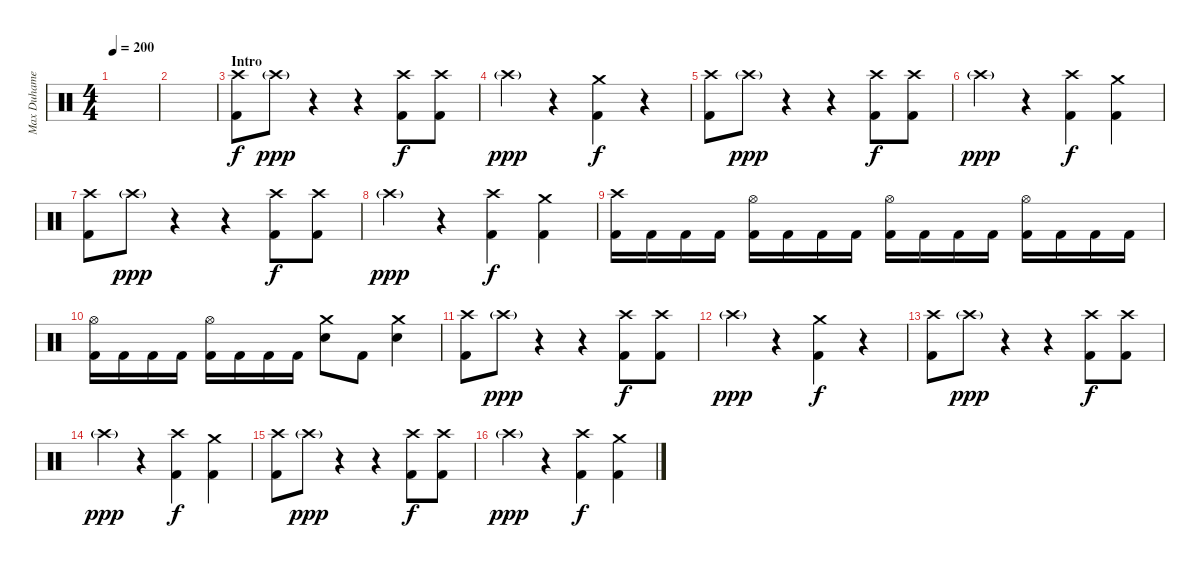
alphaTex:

\track ("Max Duhamel" "Max Duhame") {instrument percussion}
\staff {score}
\articulation defaults
\ts (4 4)
\tempo 200
\clef neutral
\ks c
|
|
\section ("" "Intro")
("Crash high (hit)" "Kick (hit) 2").8 "Crash high (hit)"{g}.8{dy ppp} r.4 r.4 ("Crash high (hit)" "Kick (hit) 2").8{dy f} ("Crash high (hit)" "Kick (hit) 2").8 |
"Crash high (hit)"{g}.4{dy ppp} r.4 ("Crash medium (hit)" "Kick (hit) 2").4{dy f} r.4 |
("Crash high (hit)" "Kick (hit) 2").8 "Crash high (hit)"{g}.8{dy ppp} r.4 r.4 ("Crash high (hit)" "Kick (hit) 2").8{dy f} ("Crash high (hit)" "Kick (hit) 2").8 |
"Crash high (hit)"{g}.4{dy ppp} r.4 ("Crash high (hit)" "Kick (hit) 2").4{dy f} ("Crash medium (hit)" "Kick (hit) 2").4 |
("Crash high (hit)" "Kick (hit) 2").8 "Crash high (hit)"{g}.8{dy ppp} r.4 r.4 ("Crash high (hit)" "Kick (hit) 2").8{dy f} ("Crash high (hit)" "Kick (hit) 2").8 |
"Crash high (hit)"{g}.4{dy ppp} r.4 ("Crash high (hit)" "Kick (hit) 2").4{dy f} ("Crash medium (hit)" "Kick (hit) 2").4 |
("Crash high (hit)" "Kick (hit) 2").16 "Kick (hit) 2".16 "Kick (hit) 2".16 "Kick (hit) 2".16 ("Hi-Hat (open)" "Kick (hit) 2").16 "Kick (hit) 2".16 "Kick (hit) 2".16 "Kick (hit) 2".16 ("Hi-Hat (open)" "Kick (hit) 2").16 "Kick (hit) 2".16 "Kick (hit) 2".16 "Kick (hit) 2".16 ("Hi-Hat (open)" "Kick (hit) 2").16 "Kick (hit) 2".16 "Kick (hit) 2".16 "Kick (hit) 2".16 |
("Hi-Hat (open)" "Kick (hit) 2").16 "Kick (hit) 2".16 "Kick (hit) 2".16 "Kick (hit) 2".16 ("Hi-Hat (open)" "Kick (hit) 2").16 "Kick (hit) 2".16 "Kick (hit) 2".16 "Kick (hit) 2".16 ("Crash medium (hit)" "Electric Snare (hit)").8 "Kick (hit) 2".8 ("Crash medium (hit)" "Electric Snare (hit)").4 |
\section ("" "")
("Crash high (hit)" "Kick (hit) 2").8 "Crash high (hit)"{g}.8{dy ppp} r.4 r.4 ("Crash high (hit)" "Kick (hit) 2").8{dy f} ("Crash high (hit)" "Kick (hit) 2").8 |
"Crash high (hit)"{g}.4{dy ppp} r.4 ("Crash medium (hit)" "Kick (hit) 2").4{dy f} r.4 |
("Crash high (hit)" "Kick (hit) 2").8 "Crash high (hit)"{g}.8{dy ppp} r.4 r.4 ("Crash high (hit)" "Kick (hit) 2").8{dy f} ("Crash high (hit)" "Kick (hit) 2").8 |
"Crash high (hit)"{g}.4{dy ppp} r.4 ("Crash high (hit)" "Kick (hit) 2").4{dy f} ("Crash medium (hit)" "Kick (hit) 2").4 |
("Crash high (hit)" "Kick (hit) 2").8 "Crash high (hit)"{g}.8{dy ppp} r.4 r.4 ("Crash high (hit)" "Kick (hit) 2").8{dy f} ("Crash high (hit)" "Kick (hit) 2").8 |
"Crash high (hit)"{g}.4{dy ppp} r.4 ("Crash high (hit)" "Kick (hit) 2").4{dy f} ("Crash medium (hit)" "Kick (hit) 2").4
